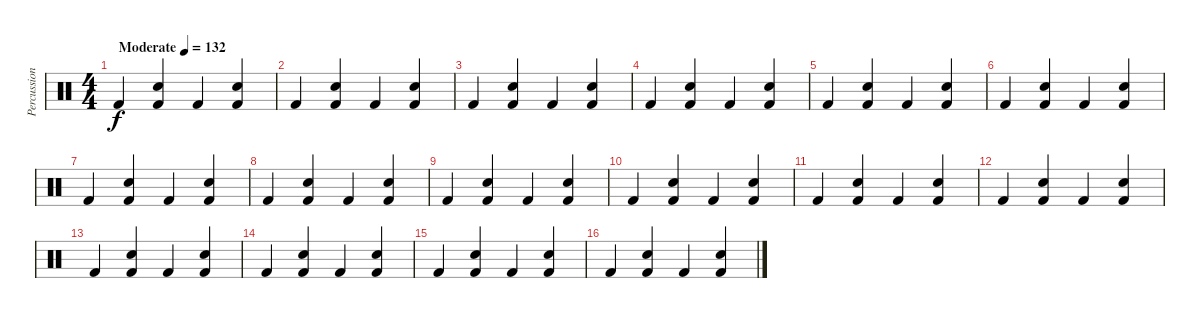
\track ("Percussion" "Percussion") {instrument percussion}
\staff {score}
\articulation defaults
\ts (4 4)
\tempo (132 "Moderate")
\clef neutral
\ks c "Kick (hit) 2".4{dy f}
("Hand Clap (hit)" "Kick (hit) 2").4 "Kick (hit) 2".4 ("Hand Clap (hit)" "Kick (hit) 2").4 |
"Kick (hit) 2".4 ("Hand Clap (hit)" "Kick (hit) 2").4 "Kick (hit) 2".4 ("Hand Clap (hit)" "Kick (hit) 2").4 |
"Kick (hit) 2".4 ("Hand Clap (hit)" "Kick (hit) 2").4 "Kick (hit) 2".4 ("Hand Clap (hit)" "Kick (hit) 2").4 |
"Kick (hit) 2".4 ("Hand Clap (hit)" "Kick (hit) 2").4 "Kick (hit) 2".4 ("Hand Clap (hit)" "Kick (hit) 2").4 |
"Kick (hit) 2".4 ("Hand Clap (hit)" "Kick (hit) 2").4 "Kick (hit) 2".4 ("Hand Clap (hit)" "Kick (hit) 2").4 |
"Kick (hit) 2".4 ("Hand Clap (hit)" "Kick (hit) 2").4 "Kick (hit) 2".4 ("Hand Clap (hit)" "Kick (hit) 2").4 |
"Kick (hit) 2".4 ("Hand Clap (hit)" "Kick (hit) 2").4 "Kick (hit) 2".4 ("Hand Clap (hit)" "Kick (hit) 2").4 |
"Kick (hit) 2".4 ("Hand Clap (hit)" "Kick (hit) 2").4 "Kick (hit) 2".4 ("Hand Clap (hit)" "Kick (hit) 2").4 |
"Kick (hit) 2".4 ("Hand Clap (hit)" "Kick (hit) 2").4 "Kick (hit) 2".4 ("Hand Clap (hit)" "Kick (hit) 2").4 |
"Kick (hit) 2".4 ("Hand Clap (hit)" "Kick (hit) 2").4 "Kick (hit) 2".4 ("Hand Clap (hit)" "Kick (hit) 2").4 |
"Kick (hit) 2".4 ("Hand Clap (hit)" "Kick (hit) 2").4 "Kick (hit) 2".4 ("Hand Clap (hit)" "Kick (hit) 2").4 |
"Kick (hit) 2".4 ("Hand Clap (hit)" "Kick (hit) 2").4 "Kick (hit) 2".4 ("Hand Clap (hit)" "Kick (hit) 2").4 |
"Kick (hit) 2".4 ("Hand Clap (hit)" "Kick (hit) 2").4 "Kick (hit) 2".4 ("Hand Clap (hit)" "Kick (hit) 2").4 |
"Kick (hit) 2".4 ("Hand Clap (hit)" "Kick (hit) 2").4 "Kick (hit) 2".4 ("Hand Clap (hit)" "Kick (hit) 2").4 |
"Kick (hit) 2".4 ("Hand Clap (hit)" "Kick (hit) 2").4 "Kick (hit) 2".4 ("Hand Clap (hit)" "Kick (hit) 2").4 |
"Kick (hit) 2".4 ("Hand Clap (hit)" "Kick (hit) 2").4 "Kick (hit) 2".4 ("Hand Clap (hit)" "Kick (hit) 2").4
